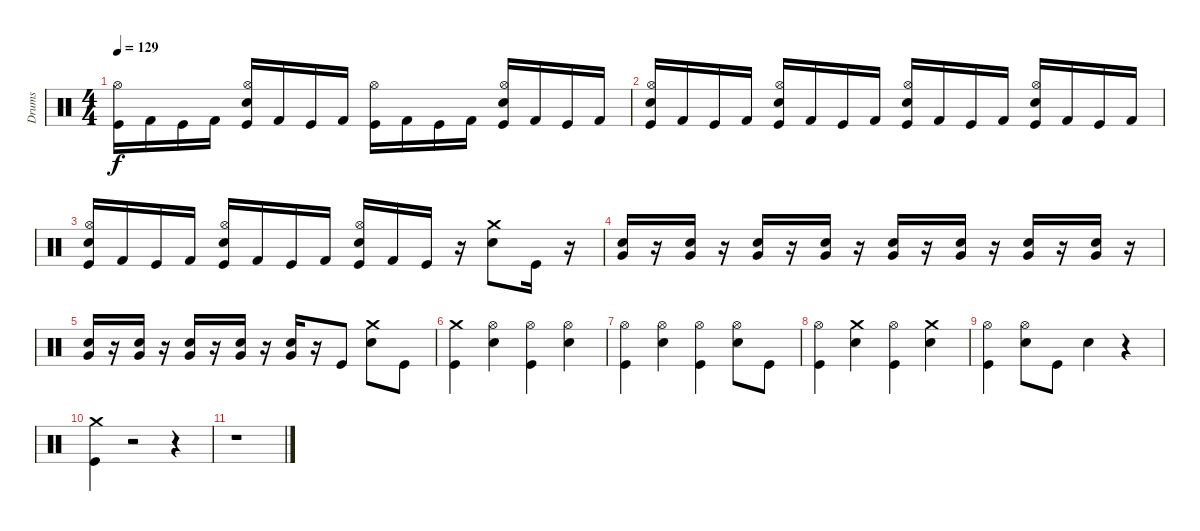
\track ("Drums" "Drums") {instrument percussion}
\staff {score}
\articulation defaults
\ts (4 4)
\tempo 129
\clef neutral
\ks c
("Kick (hit)" "Hi-Hat (open)").16{dy f} "Kick (hit) 2".16 "Kick (hit)".16 "Kick (hit) 2".16 ("Kick (hit)" "Snare (hit) 2" "Hi-Hat (open)").16 "Kick (hit) 2".16 "Kick (hit)".16 "Kick (hit) 2".16 ("Kick (hit)" "Hi-Hat (open)").16 "Kick (hit) 2".16 "Kick (hit)".16 "Kick (hit) 2".16 ("Kick (hit)" "Snare (hit) 2" "Hi-Hat (open)").16 "Kick (hit) 2".16 "Kick (hit)".16 "Kick (hit) 2".16 |
("Snare (hit) 2" "Kick (hit)" "Hi-Hat (open)").16 "Kick (hit) 2".16 "Kick (hit)".16 "Kick (hit) 2".16 ("Kick (hit)" "Snare (hit) 2" "Hi-Hat (open)").16 "Kick (hit) 2".16 "Kick (hit)".16 "Kick (hit) 2".16 ("Snare (hit) 2" "Kick (hit)" "Hi-Hat (open)").16 "Kick (hit) 2".16 "Kick (hit)".16 "Kick (hit) 2".16 ("Kick (hit)" "Snare (hit) 2" "Hi-Hat (open)").16 "Kick (hit) 2".16 "Kick (hit)".16 "Kick (hit) 2".16 |
("Snare (hit) 2" "Kick (hit)" "Hi-Hat (open)").16 "Kick (hit) 2".16 "Kick (hit)".16 "Kick (hit) 2".16 ("Kick (hit)" "Snare (hit) 2" "Hi-Hat (open)").16 "Kick (hit) 2".16 "Kick (hit)".16 "Kick (hit) 2".16 ("Snare (hit) 2" "Kick (hit)" "Hi-Hat (open)").16 "Kick (hit) 2".16 "Kick (hit)".16 r.16 ("Crash medium (hit)" "Snare (hit) 2").8 "Kick (hit)".16 r.16 |
("Snare (hit) 2" "Very Low Tom (hit)").16 r.16 ("Snare (hit) 2" "Very Low Tom (hit)").16 r.16 ("Snare (hit) 2" "Very Low Tom (hit)").16 r.16 ("Snare (hit) 2" "Very Low Tom (hit)").16 r.16 ("Snare (hit) 2" "Very Low Tom (hit)").16 r.16 ("Snare (hit) 2" "Very Low Tom (hit)").16 r.16 ("Snare (hit) 2" "Very Low Tom (hit)").16 r.16 ("Snare (hit) 2" "Very Low Tom (hit)").16 r.16 |
("Snare (hit) 2" "Very Low Tom (hit)").16 r.16 ("Snare (hit) 2" "Very Low Tom (hit)").16 r.16 ("Snare (hit) 2" "Very Low Tom (hit)").16 r.16 ("Snare (hit) 2" "Very Low Tom (hit)").16 r.16 ("Very Low Tom (hit)" "Snare (hit) 2").16 r.16 "Kick (hit)".8 ("Crash medium (hit)" "Snare (hit) 2").8 "Kick (hit)".8 |
("Crash medium (hit)" "Kick (hit)").4 ("Snare (hit) 2" "Hi-Hat (open)").4 ("Kick (hit)" "Hi-Hat (open)").4 ("Snare (hit) 2" "Hi-Hat (open)").4 |
("Kick (hit)" "Hi-Hat (open)").4 ("Snare (hit) 2" "Hi-Hat (open)").4 ("Kick (hit)" "Hi-Hat (open)").4 ("Snare (hit) 2" "Hi-Hat (open)").8 "Kick (hit)".8 |
("Kick (hit)" "Hi-Hat (open)").4 ("Crash medium (hit)" "Snare (hit) 2").4 ("Kick (hit)" "Hi-Hat (open)").4 ("Crash medium (hit)" "Snare (hit) 2").4 |
("Hi-Hat (open)" "Kick (hit)").4 ("Hi-Hat (open)" "Snare (hit) 2").8 "Kick (hit)".8 "Snare (hit) 2".4 r.4 |
("Crash medium (hit)" "Kick (hit)").4 r.2 r.4 |
r.1
